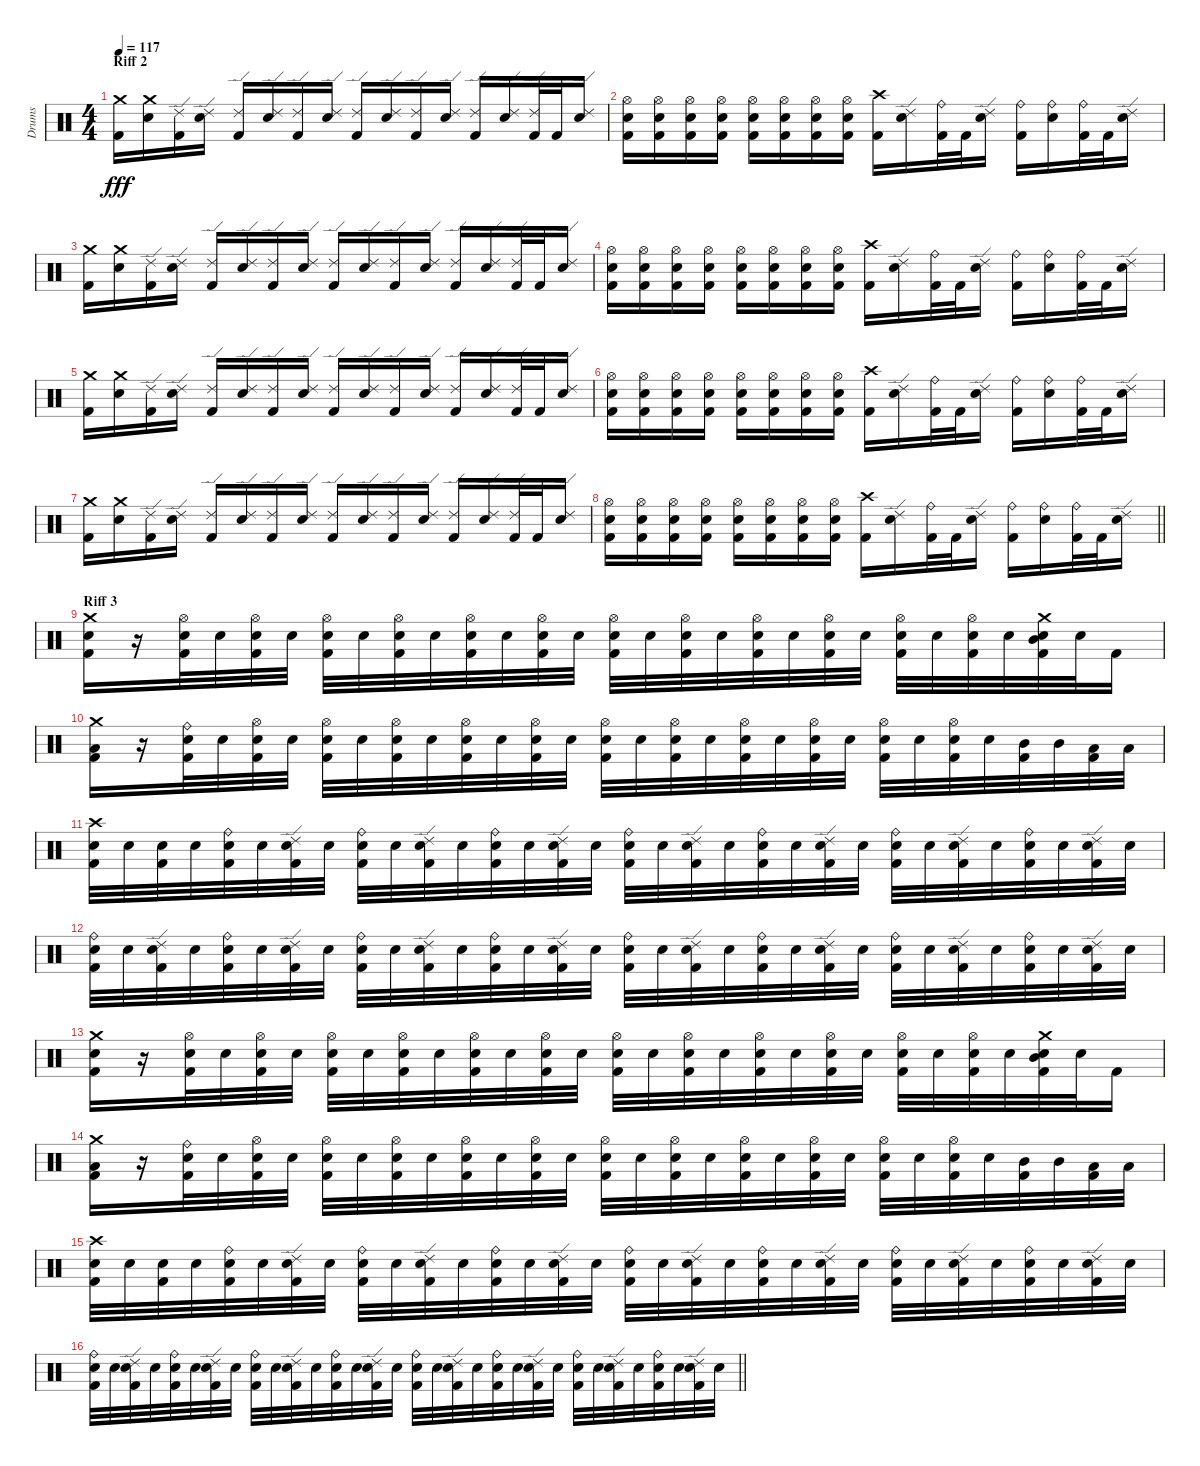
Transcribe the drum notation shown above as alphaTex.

\track ("Drums" "Drums") {instrument percussion}
\staff {score}
\articulation defaults
\ts (4 4)
\section ("" "Riff 2")
\tempo 117
\clef neutral
\ks c
("Kick (hit) 2" "Crash medium (hit)").16{dy fff} ("Snare (hit) 2" "Crash medium (hit)").16 ("Kick (hit) 2" "Ride (edge) 2").16 ("Snare (hit) 2" "Ride (edge) 2").16 ("Kick (hit) 2" "Ride (edge) 2").16 ("Snare (hit) 2" "Ride (edge) 2").16 ("Kick (hit) 2" "Ride (edge) 2").16 ("Snare (hit) 2" "Ride (edge) 2").16 ("Kick (hit) 2" "Ride (edge) 2").16 ("Snare (hit) 2" "Ride (edge) 2").16 ("Kick (hit) 2" "Ride (edge) 2").16 ("Snare (hit) 2" "Ride (edge) 2").16 ("Kick (hit) 2" "Ride (edge) 2").16 ("Snare (hit) 2" "Ride (edge) 2").16 ("Kick (hit) 2" "Ride (edge) 2").32 "Kick (hit) 2".32 ("Snare (hit) 2" "Ride (edge) 2").16 |
("Kick (hit) 2" "Snare (hit) 2" "Hi-Hat (open)").16 ("Kick (hit) 2" "Snare (hit) 2" "Hi-Hat (open)").16 ("Kick (hit) 2" "Snare (hit) 2" "Hi-Hat (open)").16 ("Kick (hit) 2" "Snare (hit) 2" "Hi-Hat (open)").16 ("Kick (hit) 2" "Snare (hit) 2" "Hi-Hat (open)").16 ("Kick (hit) 2" "Snare (hit) 2" "Hi-Hat (open)").16 ("Kick (hit) 2" "Snare (hit) 2" "Hi-Hat (open)").16 ("Kick (hit) 2" "Snare (hit) 2" "Hi-Hat (open)").16 ("Kick (hit) 2" "Crash high (hit)").16 ("Snare (hit) 2" "Ride (edge) 2").16 ("Kick (hit) 2" "Ride (bell)").32 "Kick (hit) 2".32 ("Snare (hit) 2" "Ride (edge) 2").16 ("Kick (hit) 2" "Ride (bell)").16 ("Snare (hit) 2" "Ride (bell)").16 ("Kick (hit) 2" "Ride (bell)").32 "Kick (hit) 2".32 ("Snare (hit) 2" "Ride (edge) 2").16 |
("Kick (hit) 2" "Crash medium (hit)").16 ("Snare (hit) 2" "Crash medium (hit)").16 ("Kick (hit) 2" "Ride (edge) 2").16 ("Snare (hit) 2" "Ride (edge) 2").16 ("Kick (hit) 2" "Ride (edge) 2").16 ("Snare (hit) 2" "Ride (edge) 2").16 ("Kick (hit) 2" "Ride (edge) 2").16 ("Snare (hit) 2" "Ride (edge) 2").16 ("Kick (hit) 2" "Ride (edge) 2").16 ("Snare (hit) 2" "Ride (edge) 2").16 ("Kick (hit) 2" "Ride (edge) 2").16 ("Snare (hit) 2" "Ride (edge) 2").16 ("Kick (hit) 2" "Ride (edge) 2").16 ("Snare (hit) 2" "Ride (edge) 2").16 ("Kick (hit) 2" "Ride (edge) 2").32 "Kick (hit) 2".32 ("Snare (hit) 2" "Ride (edge) 2").16 |
("Kick (hit) 2" "Snare (hit) 2" "Hi-Hat (open)").16 ("Kick (hit) 2" "Snare (hit) 2" "Hi-Hat (open)").16 ("Kick (hit) 2" "Snare (hit) 2" "Hi-Hat (open)").16 ("Kick (hit) 2" "Snare (hit) 2" "Hi-Hat (open)").16 ("Kick (hit) 2" "Snare (hit) 2" "Hi-Hat (open)").16 ("Kick (hit) 2" "Snare (hit) 2" "Hi-Hat (open)").16 ("Kick (hit) 2" "Snare (hit) 2" "Hi-Hat (open)").16 ("Kick (hit) 2" "Snare (hit) 2" "Hi-Hat (open)").16 ("Kick (hit) 2" "Crash high (hit)").16 ("Snare (hit) 2" "Ride (edge) 2").16 ("Kick (hit) 2" "Ride (bell)").32 "Kick (hit) 2".32 ("Snare (hit) 2" "Ride (edge) 2").16 ("Kick (hit) 2" "Ride (bell)").16 ("Snare (hit) 2" "Ride (bell)").16 ("Kick (hit) 2" "Ride (bell)").32 "Kick (hit) 2".32 ("Snare (hit) 2" "Ride (edge) 2").16 |
("Kick (hit) 2" "Crash medium (hit)").16 ("Snare (hit) 2" "Crash medium (hit)").16 ("Kick (hit) 2" "Ride (edge) 2").16 ("Snare (hit) 2" "Ride (edge) 2").16 ("Kick (hit) 2" "Ride (edge) 2").16 ("Snare (hit) 2" "Ride (edge) 2").16 ("Kick (hit) 2" "Ride (edge) 2").16 ("Snare (hit) 2" "Ride (edge) 2").16 ("Kick (hit) 2" "Ride (edge) 2").16 ("Snare (hit) 2" "Ride (edge) 2").16 ("Kick (hit) 2" "Ride (edge) 2").16 ("Snare (hit) 2" "Ride (edge) 2").16 ("Kick (hit) 2" "Ride (edge) 2").16 ("Snare (hit) 2" "Ride (edge) 2").16 ("Kick (hit) 2" "Ride (edge) 2").32 "Kick (hit) 2".32 ("Snare (hit) 2" "Ride (edge) 2").16 |
("Kick (hit) 2" "Snare (hit) 2" "Hi-Hat (open)").16 ("Kick (hit) 2" "Snare (hit) 2" "Hi-Hat (open)").16 ("Kick (hit) 2" "Snare (hit) 2" "Hi-Hat (open)").16 ("Kick (hit) 2" "Snare (hit) 2" "Hi-Hat (open)").16 ("Kick (hit) 2" "Snare (hit) 2" "Hi-Hat (open)").16 ("Kick (hit) 2" "Snare (hit) 2" "Hi-Hat (open)").16 ("Kick (hit) 2" "Snare (hit) 2" "Hi-Hat (open)").16 ("Kick (hit) 2" "Snare (hit) 2" "Hi-Hat (open)").16 ("Kick (hit) 2" "Crash high (hit)").16 ("Snare (hit) 2" "Ride (edge) 2").16 ("Kick (hit) 2" "Ride (bell)").32 "Kick (hit) 2".32 ("Snare (hit) 2" "Ride (edge) 2").16 ("Kick (hit) 2" "Ride (bell)").16 ("Snare (hit) 2" "Ride (bell)").16 ("Kick (hit) 2" "Ride (bell)").32 "Kick (hit) 2".32 ("Snare (hit) 2" "Ride (edge) 2").16 |
("Kick (hit) 2" "Crash medium (hit)").16 ("Snare (hit) 2" "Crash medium (hit)").16 ("Kick (hit) 2" "Ride (edge) 2").16 ("Snare (hit) 2" "Ride (edge) 2").16 ("Kick (hit) 2" "Ride (edge) 2").16 ("Snare (hit) 2" "Ride (edge) 2").16 ("Kick (hit) 2" "Ride (edge) 2").16 ("Snare (hit) 2" "Ride (edge) 2").16 ("Kick (hit) 2" "Ride (edge) 2").16 ("Snare (hit) 2" "Ride (edge) 2").16 ("Kick (hit) 2" "Ride (edge) 2").16 ("Snare (hit) 2" "Ride (edge) 2").16 ("Kick (hit) 2" "Ride (edge) 2").16 ("Snare (hit) 2" "Ride (edge) 2").16 ("Kick (hit) 2" "Ride (edge) 2").32 "Kick (hit) 2".32 ("Snare (hit) 2" "Ride (edge) 2").16 |
\barLineRight lightlight
("Kick (hit) 2" "Snare (hit) 2" "Hi-Hat (open)").16 ("Kick (hit) 2" "Snare (hit) 2" "Hi-Hat (open)").16 ("Kick (hit) 2" "Snare (hit) 2" "Hi-Hat (open)").16 ("Kick (hit) 2" "Snare (hit) 2" "Hi-Hat (open)").16 ("Kick (hit) 2" "Snare (hit) 2" "Hi-Hat (open)").16 ("Kick (hit) 2" "Snare (hit) 2" "Hi-Hat (open)").16 ("Kick (hit) 2" "Snare (hit) 2" "Hi-Hat (open)").16 ("Kick (hit) 2" "Snare (hit) 2" "Hi-Hat (open)").16 ("Kick (hit) 2" "Crash high (hit)").16 ("Snare (hit) 2" "Ride (edge) 2").16 ("Kick (hit) 2" "Ride (bell)").32 "Kick (hit) 2".32 ("Snare (hit) 2" "Ride (edge) 2").16 ("Kick (hit) 2" "Ride (bell)").16 ("Snare (hit) 2" "Ride (bell)").16 ("Kick (hit) 2" "Ride (bell)").32 "Kick (hit) 2".32 ("Snare (hit) 2" "Ride (edge) 2").16 |
\section ("" "Riff 3")
("Kick (hit) 2" "Snare (hit) 2" "Crash medium (hit)").16 r.16 ("Kick (hit) 2" "Snare (hit) 2" "Hi-Hat (open)").32 "Snare (hit) 2".32 ("Kick (hit) 2" "Snare (hit) 2" "Hi-Hat (open)").32 "Snare (hit) 2".32 ("Kick (hit) 2" "Snare (hit) 2" "Hi-Hat (open)").32 "Snare (hit) 2".32 ("Kick (hit) 2" "Snare (hit) 2" "Hi-Hat (open)").32 "Snare (hit) 2".32 ("Kick (hit) 2" "Snare (hit) 2" "Hi-Hat (open)").32 "Snare (hit) 2".32 ("Kick (hit) 2" "Snare (hit) 2" "Hi-Hat (open)").32 "Snare (hit) 2".32 ("Kick (hit) 2" "Snare (hit) 2" "Hi-Hat (open)").32 "Snare (hit) 2".32 ("Kick (hit) 2" "Snare (hit) 2" "Hi-Hat (open)").32 "Snare (hit) 2".32 ("Kick (hit) 2" "Snare (hit) 2" "Hi-Hat (open)").32 "Snare (hit) 2".32 ("Kick (hit) 2" "Snare (hit) 2" "Hi-Hat (open)").32 "Snare (hit) 2".32 ("Kick (hit) 2" "Snare (hit) 2" "Hi-Hat (open)").32 "Snare (hit) 2".32 ("Kick (hit) 2" "Snare (hit) 2" "Hi-Hat (open)").32 "Snare (hit) 2".32 ("Kick (hit) 2" "Snare (hit) 2" "Mid Tom (hit)" "Crash medium (hit)").32 "Snare (hit) 2".32 "Kick (hit) 2".16 |
("Kick (hit) 2" "Low Tom (hit)" "Crash medium (hit)").16 r.16 ("Kick (hit) 2" "Snare (hit) 2" "Ride (bell)").32 "Snare (hit) 2".32 ("Kick (hit) 2" "Snare (hit) 2" "Hi-Hat (open)").32 "Snare (hit) 2".32 ("Kick (hit) 2" "Snare (hit) 2" "Hi-Hat (open)").32 "Snare (hit) 2".32 ("Kick (hit) 2" "Snare (hit) 2" "Hi-Hat (open)").32 "Snare (hit) 2".32 ("Kick (hit) 2" "Snare (hit) 2" "Hi-Hat (open)").32 "Snare (hit) 2".32 ("Kick (hit) 2" "Snare (hit) 2" "Hi-Hat (open)").32 "Snare (hit) 2".32 ("Kick (hit) 2" "Snare (hit) 2" "Hi-Hat (open)").32 "Snare (hit) 2".32 ("Kick (hit) 2" "Snare (hit) 2" "Hi-Hat (open)").32 "Snare (hit) 2".32 ("Kick (hit) 2" "Snare (hit) 2" "Hi-Hat (open)").32 "Snare (hit) 2".32 ("Kick (hit) 2" "Snare (hit) 2" "Hi-Hat (open)").32 "Snare (hit) 2".32 ("Kick (hit) 2" "Snare (hit) 2" "Hi-Hat (open)").32 "Snare (hit) 2".32 ("Kick (hit) 2" "Snare (hit) 2" "Hi-Hat (open)").32 "Snare (hit) 2".32 ("Kick (hit) 2" "Mid Tom (hit)").32 "Mid Tom (hit)".32 ("Kick (hit) 2" "Low Tom (hit)").32 "Low Tom (hit)".32 |
("Kick (hit) 2" "Snare (hit) 2" "Crash high (hit)").32 "Snare (hit) 2".32 ("Kick (hit) 2" "Snare (hit) 2").32 "Snare (hit) 2".32 ("Kick (hit) 2" "Snare (hit) 2" "Ride (bell)").32 "Snare (hit) 2".32 ("Kick (hit) 2" "Snare (hit) 2" "Ride (edge) 2").32 "Snare (hit) 2".32 ("Kick (hit) 2" "Snare (hit) 2" "Ride (bell)").32 "Snare (hit) 2".32 ("Kick (hit) 2" "Snare (hit) 2" "Ride (edge) 2").32 "Snare (hit) 2".32 ("Kick (hit) 2" "Snare (hit) 2" "Ride (bell)").32 "Snare (hit) 2".32 ("Kick (hit) 2" "Snare (hit) 2" "Ride (edge) 2").32 "Snare (hit) 2".32 ("Kick (hit) 2" "Snare (hit) 2" "Ride (bell)").32 "Snare (hit) 2".32 ("Kick (hit) 2" "Snare (hit) 2" "Ride (edge) 2").32 "Snare (hit) 2".32 ("Kick (hit) 2" "Snare (hit) 2" "Ride (bell)").32 "Snare (hit) 2".32 ("Kick (hit) 2" "Snare (hit) 2" "Ride (edge) 2").32 "Snare (hit) 2".32 ("Kick (hit) 2" "Snare (hit) 2" "Ride (bell)").32 "Snare (hit) 2".32 ("Kick (hit) 2" "Snare (hit) 2" "Ride (edge) 2").32 "Snare (hit) 2".32 ("Kick (hit) 2" "Snare (hit) 2" "Ride (bell)").32 "Snare (hit) 2".32 ("Kick (hit) 2" "Snare (hit) 2" "Ride (edge) 2").32 "Snare (hit) 2".32 |
("Kick (hit) 2" "Snare (hit) 2" "Ride (bell)").32 "Snare (hit) 2".32 ("Kick (hit) 2" "Snare (hit) 2" "Ride (edge) 2").32 "Snare (hit) 2".32 ("Kick (hit) 2" "Snare (hit) 2" "Ride (bell)").32 "Snare (hit) 2".32 ("Kick (hit) 2" "Snare (hit) 2" "Ride (edge) 2").32 "Snare (hit) 2".32 ("Kick (hit) 2" "Snare (hit) 2" "Ride (bell)").32 "Snare (hit) 2".32 ("Kick (hit) 2" "Snare (hit) 2" "Ride (edge) 2").32 "Snare (hit) 2".32 ("Kick (hit) 2" "Snare (hit) 2" "Ride (bell)").32 "Snare (hit) 2".32 ("Kick (hit) 2" "Snare (hit) 2" "Ride (edge) 2").32 "Snare (hit) 2".32 ("Kick (hit) 2" "Snare (hit) 2" "Ride (bell)").32 "Snare (hit) 2".32 ("Kick (hit) 2" "Snare (hit) 2" "Ride (edge) 2").32 "Snare (hit) 2".32 ("Kick (hit) 2" "Snare (hit) 2" "Ride (bell)").32 "Snare (hit) 2".32 ("Kick (hit) 2" "Snare (hit) 2" "Ride (edge) 2").32 "Snare (hit) 2".32 ("Kick (hit) 2" "Snare (hit) 2" "Ride (bell)").32 "Snare (hit) 2".32 ("Kick (hit) 2" "Snare (hit) 2" "Ride (edge) 2").32 "Snare (hit) 2".32 ("Kick (hit) 2" "Snare (hit) 2" "Ride (bell)").32 "Snare (hit) 2".32 ("Kick (hit) 2" "Snare (hit) 2" "Ride (edge) 2").32 "Snare (hit) 2".32 |
("Kick (hit) 2" "Snare (hit) 2" "Crash medium (hit)").16 r.16 ("Kick (hit) 2" "Snare (hit) 2" "Hi-Hat (open)").32 "Snare (hit) 2".32 ("Kick (hit) 2" "Snare (hit) 2" "Hi-Hat (open)").32 "Snare (hit) 2".32 ("Kick (hit) 2" "Snare (hit) 2" "Hi-Hat (open)").32 "Snare (hit) 2".32 ("Kick (hit) 2" "Snare (hit) 2" "Hi-Hat (open)").32 "Snare (hit) 2".32 ("Kick (hit) 2" "Snare (hit) 2" "Hi-Hat (open)").32 "Snare (hit) 2".32 ("Kick (hit) 2" "Snare (hit) 2" "Hi-Hat (open)").32 "Snare (hit) 2".32 ("Kick (hit) 2" "Snare (hit) 2" "Hi-Hat (open)").32 "Snare (hit) 2".32 ("Kick (hit) 2" "Snare (hit) 2" "Hi-Hat (open)").32 "Snare (hit) 2".32 ("Kick (hit) 2" "Snare (hit) 2" "Hi-Hat (open)").32 "Snare (hit) 2".32 ("Kick (hit) 2" "Snare (hit) 2" "Hi-Hat (open)").32 "Snare (hit) 2".32 ("Kick (hit) 2" "Snare (hit) 2" "Hi-Hat (open)").32 "Snare (hit) 2".32 ("Kick (hit) 2" "Snare (hit) 2" "Hi-Hat (open)").32 "Snare (hit) 2".32 ("Kick (hit) 2" "Snare (hit) 2" "Mid Tom (hit)" "Crash medium (hit)").32 "Snare (hit) 2".32 "Kick (hit) 2".16 |
("Kick (hit) 2" "Low Tom (hit)" "Crash medium (hit)").16 r.16 ("Kick (hit) 2" "Snare (hit) 2" "Ride (bell)").32 "Snare (hit) 2".32 ("Kick (hit) 2" "Snare (hit) 2" "Hi-Hat (open)").32 "Snare (hit) 2".32 ("Kick (hit) 2" "Snare (hit) 2" "Hi-Hat (open)").32 "Snare (hit) 2".32 ("Kick (hit) 2" "Snare (hit) 2" "Hi-Hat (open)").32 "Snare (hit) 2".32 ("Kick (hit) 2" "Snare (hit) 2" "Hi-Hat (open)").32 "Snare (hit) 2".32 ("Kick (hit) 2" "Snare (hit) 2" "Hi-Hat (open)").32 "Snare (hit) 2".32 ("Kick (hit) 2" "Snare (hit) 2" "Hi-Hat (open)").32 "Snare (hit) 2".32 ("Kick (hit) 2" "Snare (hit) 2" "Hi-Hat (open)").32 "Snare (hit) 2".32 ("Kick (hit) 2" "Snare (hit) 2" "Hi-Hat (open)").32 "Snare (hit) 2".32 ("Kick (hit) 2" "Snare (hit) 2" "Hi-Hat (open)").32 "Snare (hit) 2".32 ("Kick (hit) 2" "Snare (hit) 2" "Hi-Hat (open)").32 "Snare (hit) 2".32 ("Kick (hit) 2" "Snare (hit) 2" "Hi-Hat (open)").32 "Snare (hit) 2".32 ("Kick (hit) 2" "Mid Tom (hit)").32 "Mid Tom (hit)".32 ("Kick (hit) 2" "Low Tom (hit)").32 "Low Tom (hit)".32 |
("Kick (hit) 2" "Snare (hit) 2" "Crash high (hit)").32 "Snare (hit) 2".32 ("Kick (hit) 2" "Snare (hit) 2").32 "Snare (hit) 2".32 ("Kick (hit) 2" "Snare (hit) 2" "Ride (bell)").32 "Snare (hit) 2".32 ("Kick (hit) 2" "Snare (hit) 2" "Ride (edge) 2").32 "Snare (hit) 2".32 ("Kick (hit) 2" "Snare (hit) 2" "Ride (bell)").32 "Snare (hit) 2".32 ("Kick (hit) 2" "Snare (hit) 2" "Ride (edge) 2").32 "Snare (hit) 2".32 ("Kick (hit) 2" "Snare (hit) 2" "Ride (bell)").32 "Snare (hit) 2".32 ("Kick (hit) 2" "Snare (hit) 2" "Ride (edge) 2").32 "Snare (hit) 2".32 ("Kick (hit) 2" "Snare (hit) 2" "Ride (bell)").32 "Snare (hit) 2".32 ("Kick (hit) 2" "Snare (hit) 2" "Ride (edge) 2").32 "Snare (hit) 2".32 ("Kick (hit) 2" "Snare (hit) 2" "Ride (bell)").32 "Snare (hit) 2".32 ("Kick (hit) 2" "Snare (hit) 2" "Ride (edge) 2").32 "Snare (hit) 2".32 ("Kick (hit) 2" "Snare (hit) 2" "Ride (bell)").32 "Snare (hit) 2".32 ("Kick (hit) 2" "Snare (hit) 2" "Ride (edge) 2").32 "Snare (hit) 2".32 ("Kick (hit) 2" "Snare (hit) 2" "Ride (bell)").32 "Snare (hit) 2".32 ("Kick (hit) 2" "Snare (hit) 2" "Ride (edge) 2").32 "Snare (hit) 2".32 |
\barLineRight lightlight
("Kick (hit) 2" "Snare (hit) 2" "Ride (bell)").32 "Snare (hit) 2".32 ("Kick (hit) 2" "Snare (hit) 2" "Ride (edge) 2").32 "Snare (hit) 2".32 ("Kick (hit) 2" "Snare (hit) 2" "Ride (bell)").32 "Snare (hit) 2".32 ("Kick (hit) 2" "Snare (hit) 2" "Ride (edge) 2").32 "Snare (hit) 2".32 ("Kick (hit) 2" "Snare (hit) 2" "Ride (bell)").32 "Snare (hit) 2".32 ("Kick (hit) 2" "Snare (hit) 2" "Ride (edge) 2").32 "Snare (hit) 2".32 ("Kick (hit) 2" "Snare (hit) 2" "Ride (bell)").32 "Snare (hit) 2".32 ("Kick (hit) 2" "Snare (hit) 2" "Ride (edge) 2").32 "Snare (hit) 2".32 ("Kick (hit) 2" "Snare (hit) 2" "Ride (bell)").32 "Snare (hit) 2".32 ("Kick (hit) 2" "Snare (hit) 2" "Ride (edge) 2").32 "Snare (hit) 2".32 ("Kick (hit) 2" "Snare (hit) 2" "Ride (bell)").32 "Snare (hit) 2".32 ("Kick (hit) 2" "Snare (hit) 2" "Ride (edge) 2").32 "Snare (hit) 2".32 ("Kick (hit) 2" "Snare (hit) 2" "Ride (bell)").32 "Snare (hit) 2".32 ("Kick (hit) 2" "Snare (hit) 2" "Ride (edge) 2").32 "Snare (hit) 2".32 ("Kick (hit) 2" "Snare (hit) 2" "Ride (bell)").32 "Snare (hit) 2".32 ("Kick (hit) 2" "Snare (hit) 2" "Ride (edge) 2").32 "Snare (hit) 2".32
